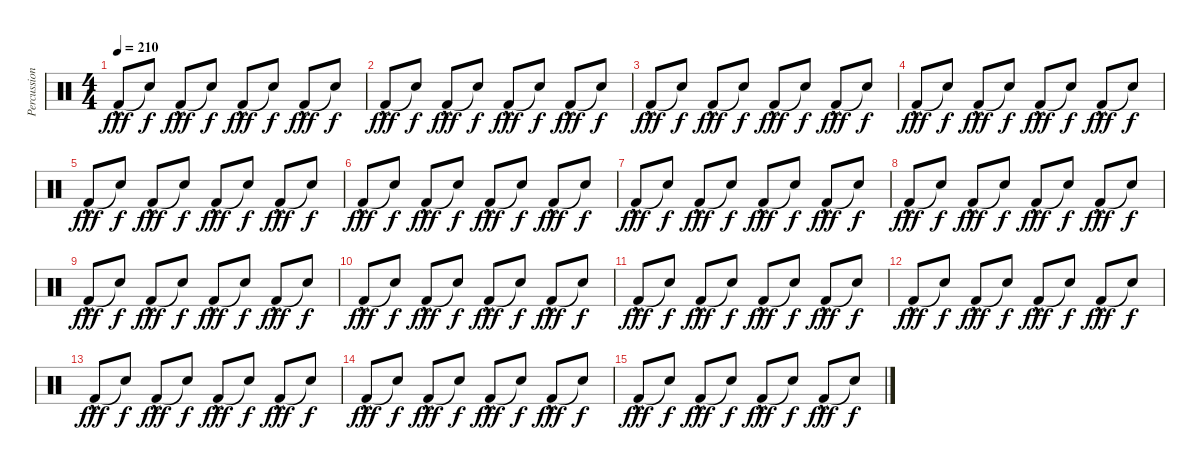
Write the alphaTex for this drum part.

\track ("Percussion" "Percussion") {instrument percussion}
\staff {score}
\articulation defaults
\ts (4 4)
\tempo 210
\clef neutral
\ks c "Kick (hit) 2"{hac}.8{dy fff} "Snare (hit)"{t}.8{dy f} "Kick (hit) 2"{hac}.8{dy fff} "Snare (hit)"{t}.8{dy f} "Kick (hit) 2"{hac}.8{dy fff} "Snare (hit)"{t}.8{dy f} "Kick (hit) 2"{hac}.8{dy fff} "Snare (hit)"{t}.8{dy f}
|
"Kick (hit) 2"{hac}.8{dy fff} "Snare (hit)"{t}.8{dy f} "Kick (hit) 2"{hac}.8{dy fff} "Snare (hit)"{t}.8{dy f} "Kick (hit) 2"{hac}.8{dy fff} "Snare (hit)"{t}.8{dy f} "Kick (hit) 2"{hac}.8{dy fff} "Snare (hit)"{t}.8{dy f} |
"Kick (hit) 2"{hac}.8{dy fff} "Snare (hit)"{t}.8{dy f} "Kick (hit) 2"{hac}.8{dy fff} "Snare (hit)"{t}.8{dy f} "Kick (hit) 2"{hac}.8{dy fff} "Snare (hit)"{t}.8{dy f} "Kick (hit) 2"{hac}.8{dy fff} "Snare (hit)"{t}.8{dy f} |
"Kick (hit) 2"{hac}.8{dy fff} "Snare (hit)"{t}.8{dy f} "Kick (hit) 2"{hac}.8{dy fff} "Snare (hit)"{t}.8{dy f} "Kick (hit) 2"{hac}.8{dy fff} "Snare (hit)"{t}.8{dy f} "Kick (hit) 2"{hac}.8{dy fff} "Snare (hit)"{t}.8{dy f} |
"Kick (hit) 2"{hac}.8{dy fff} "Snare (hit)"{t}.8{dy f} "Kick (hit) 2"{hac}.8{dy fff} "Snare (hit)"{t}.8{dy f} "Kick (hit) 2"{hac}.8{dy fff} "Snare (hit)"{t}.8{dy f} "Kick (hit) 2"{hac}.8{dy fff} "Snare (hit)"{t}.8{dy f} |
"Kick (hit) 2"{hac}.8{dy fff} "Snare (hit)"{t}.8{dy f} "Kick (hit) 2"{hac}.8{dy fff} "Snare (hit)"{t}.8{dy f} "Kick (hit) 2"{hac}.8{dy fff} "Snare (hit)"{t}.8{dy f} "Kick (hit) 2"{hac}.8{dy fff} "Snare (hit)"{t}.8{dy f} |
"Kick (hit) 2"{hac}.8{dy fff} "Snare (hit)"{t}.8{dy f} "Kick (hit) 2"{hac}.8{dy fff} "Snare (hit)"{t}.8{dy f} "Kick (hit) 2"{hac}.8{dy fff} "Snare (hit)"{t}.8{dy f} "Kick (hit) 2"{hac}.8{dy fff} "Snare (hit)"{t}.8{dy f} |
"Kick (hit) 2"{hac}.8{dy fff} "Snare (hit)"{t}.8{dy f} "Kick (hit) 2"{hac}.8{dy fff} "Snare (hit)"{t}.8{dy f} "Kick (hit) 2"{hac}.8{dy fff} "Snare (hit)"{t}.8{dy f} "Kick (hit) 2"{hac}.8{dy fff} "Snare (hit)"{t}.8{dy f} |
"Kick (hit) 2"{hac}.8{dy fff} "Snare (hit)"{t}.8{dy f} "Kick (hit) 2"{hac}.8{dy fff} "Snare (hit)"{t}.8{dy f} "Kick (hit) 2"{hac}.8{dy fff} "Snare (hit)"{t}.8{dy f} "Kick (hit) 2"{hac}.8{dy fff} "Snare (hit)"{t}.8{dy f} |
"Kick (hit) 2"{hac}.8{dy fff} "Snare (hit)"{t}.8{dy f} "Kick (hit) 2"{hac}.8{dy fff} "Snare (hit)"{t}.8{dy f} "Kick (hit) 2"{hac}.8{dy fff} "Snare (hit)"{t}.8{dy f} "Kick (hit) 2"{hac}.8{dy fff} "Snare (hit)"{t}.8{dy f} |
"Kick (hit) 2"{hac}.8{dy fff} "Snare (hit)"{t}.8{dy f} "Kick (hit) 2"{hac}.8{dy fff} "Snare (hit)"{t}.8{dy f} "Kick (hit) 2"{hac}.8{dy fff} "Snare (hit)"{t}.8{dy f} "Kick (hit) 2"{hac}.8{dy fff} "Snare (hit)"{t}.8{dy f} |
"Kick (hit) 2"{hac}.8{dy fff} "Snare (hit)"{t}.8{dy f} "Kick (hit) 2"{hac}.8{dy fff} "Snare (hit)"{t}.8{dy f} "Kick (hit) 2"{hac}.8{dy fff} "Snare (hit)"{t}.8{dy f} "Kick (hit) 2"{hac}.8{dy fff} "Snare (hit)"{t}.8{dy f} |
"Kick (hit) 2"{hac}.8{dy fff} "Snare (hit)"{t}.8{dy f} "Kick (hit) 2"{hac}.8{dy fff} "Snare (hit)"{t}.8{dy f} "Kick (hit) 2"{hac}.8{dy fff} "Snare (hit)"{t}.8{dy f} "Kick (hit) 2"{hac}.8{dy fff} "Snare (hit)"{t}.8{dy f} |
"Kick (hit) 2"{hac}.8{dy fff} "Snare (hit)"{t}.8{dy f} "Kick (hit) 2"{hac}.8{dy fff} "Snare (hit)"{t}.8{dy f} "Kick (hit) 2"{hac}.8{dy fff} "Snare (hit)"{t}.8{dy f} "Kick (hit) 2"{hac}.8{dy fff} "Snare (hit)"{t}.8{dy f} |
"Kick (hit) 2"{hac}.8{dy fff} "Snare (hit)"{t}.8{dy f} "Kick (hit) 2"{hac}.8{dy fff} "Snare (hit)"{t}.8{dy f} "Kick (hit) 2"{hac}.8{dy fff} "Snare (hit)"{t}.8{dy f} "Kick (hit) 2"{hac}.8{dy fff} "Snare (hit)"{t}.8{dy f}
